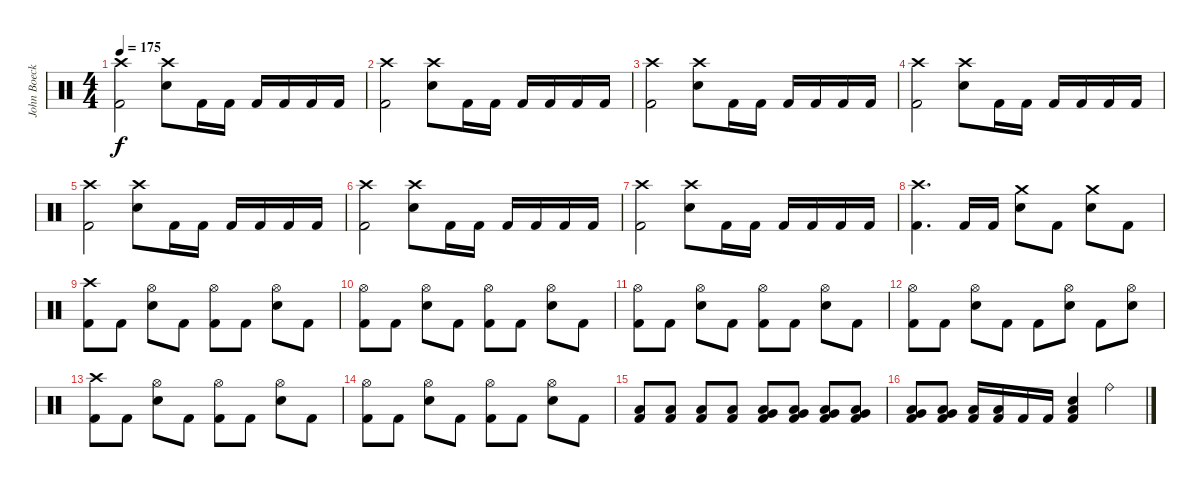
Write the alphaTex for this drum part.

\track ("John Boecklin (Drums)" "John Boeck") {instrument percussion}
\staff {score}
\articulation defaults
\ts (4 4)
\tempo 175
\clef neutral
\ks c
("Crash high (hit)" "Kick (hit) 2").2{dy f} ("Crash high (hit)" "Snare (hit) 2").8 "Kick (hit) 2".16 "Kick (hit) 2".16 "Kick (hit) 2".16 "Kick (hit) 2".16 "Kick (hit) 2".16 "Kick (hit) 2".16 |
("Crash high (hit)" "Kick (hit) 2").2 ("Crash high (hit)" "Snare (hit) 2").8 "Kick (hit) 2".16 "Kick (hit) 2".16 "Kick (hit) 2".16 "Kick (hit) 2".16 "Kick (hit) 2".16 "Kick (hit) 2".16 |
("Crash high (hit)" "Kick (hit) 2").2 ("Crash high (hit)" "Snare (hit) 2").8 "Kick (hit) 2".16 "Kick (hit) 2".16 "Kick (hit) 2".16 "Kick (hit) 2".16 "Kick (hit) 2".16 "Kick (hit) 2".16 |
("Crash high (hit)" "Kick (hit) 2").2 ("Crash high (hit)" "Snare (hit) 2").8 "Kick (hit) 2".16 "Kick (hit) 2".16 "Kick (hit) 2".16 "Kick (hit) 2".16 "Kick (hit) 2".16 "Kick (hit) 2".16 |
("Crash high (hit)" "Kick (hit) 2").2 ("Crash high (hit)" "Snare (hit) 2").8 "Kick (hit) 2".16 "Kick (hit) 2".16 "Kick (hit) 2".16 "Kick (hit) 2".16 "Kick (hit) 2".16 "Kick (hit) 2".16 |
("Crash high (hit)" "Kick (hit) 2").2 ("Crash high (hit)" "Snare (hit) 2").8 "Kick (hit) 2".16 "Kick (hit) 2".16 "Kick (hit) 2".16 "Kick (hit) 2".16 "Kick (hit) 2".16 "Kick (hit) 2".16 |
("Crash high (hit)" "Kick (hit) 2").2 ("Crash high (hit)" "Snare (hit) 2").8 "Kick (hit) 2".16 "Kick (hit) 2".16 "Kick (hit) 2".16 "Kick (hit) 2".16 "Kick (hit) 2".16 "Kick (hit) 2".16 |
("Crash high (hit)" "Kick (hit) 2").4{d} "Kick (hit) 2".16 "Kick (hit) 2".16 ("Crash medium (hit)" "Snare (hit) 2").8 "Kick (hit) 2".8 ("Crash medium (hit)" "Snare (hit) 2").8 "Kick (hit) 2".8 |
("Crash high (hit)" "Kick (hit) 2").8 "Kick (hit) 2".8 ("Hi-Hat (open)" "Snare (hit) 2").8 "Kick (hit) 2".8 ("Hi-Hat (open)" "Kick (hit) 2").8 "Kick (hit) 2".8 ("Hi-Hat (open)" "Snare (hit) 2").8 "Kick (hit) 2".8 |
("Hi-Hat (open)" "Kick (hit) 2").8 "Kick (hit) 2".8 ("Hi-Hat (open)" "Snare (hit) 2").8 "Kick (hit) 2".8 ("Hi-Hat (open)" "Kick (hit) 2").8 "Kick (hit) 2".8 ("Hi-Hat (open)" "Snare (hit) 2").8 "Kick (hit) 2".8 |
("Hi-Hat (open)" "Kick (hit) 2").8 "Kick (hit) 2".8 ("Hi-Hat (open)" "Snare (hit) 2").8 "Kick (hit) 2".8 ("Hi-Hat (open)" "Kick (hit) 2").8 "Kick (hit) 2".8 ("Hi-Hat (open)" "Snare (hit) 2").8 "Kick (hit) 2".8 |
("Hi-Hat (open)" "Kick (hit) 2").8 "Kick (hit) 2".8 ("Hi-Hat (open)" "Snare (hit) 2").8 "Kick (hit) 2".8 "Kick (hit) 2".8 ("Hi-Hat (open)" "Snare (hit) 2").8 "Kick (hit) 2".8 ("Hi-Hat (open)" "Snare (hit) 2").8 |
("Crash high (hit)" "Kick (hit) 2").8 "Kick (hit) 2".8 ("Hi-Hat (open)" "Snare (hit) 2").8 "Kick (hit) 2".8 ("Hi-Hat (open)" "Kick (hit) 2").8 "Kick (hit) 2".8 ("Hi-Hat (open)" "Snare (hit) 2").8 "Kick (hit) 2".8 |
("Hi-Hat (open)" "Kick (hit) 2").8 "Kick (hit) 2".8 ("Hi-Hat (open)" "Snare (hit) 2").8 "Kick (hit) 2".8 ("Hi-Hat (open)" "Kick (hit) 2").8 "Kick (hit) 2".8 ("Hi-Hat (open)" "Snare (hit) 2").8 "Kick (hit) 2".8 |
("Low Floor Tom (hit)" "Kick (hit) 2").8 ("Low Floor Tom (hit)" "Kick (hit) 2").8 ("Low Floor Tom (hit)" "Kick (hit) 2").8 ("Low Floor Tom (hit)" "Kick (hit) 2").8 ("Very Low Tom (hit)" "Low Floor Tom (hit)" "Kick (hit) 2").8 ("Very Low Tom (hit)" "Low Floor Tom (hit)" "Kick (hit) 2").8 ("Very Low Tom (hit)" "Low Floor Tom (hit)" "Kick (hit) 2").8 ("Very Low Tom (hit)" "Low Floor Tom (hit)" "Kick (hit) 2").8 |
("Very Low Tom (hit)" "Low Floor Tom (hit)" "Kick (hit) 2").8 ("Very Low Tom (hit)" "Low Floor Tom (hit)" "Kick (hit) 2").8 ("Low Tom (hit)" "Kick (hit) 2").16 ("Low Tom (hit)" "Kick (hit) 2").16 "Kick (hit) 2".16 "Kick (hit) 2".16 ("Kick (hit) 2" "Low Floor Tom (hit)" "Snare (hit) 2").4 "Ride (bell)".4
